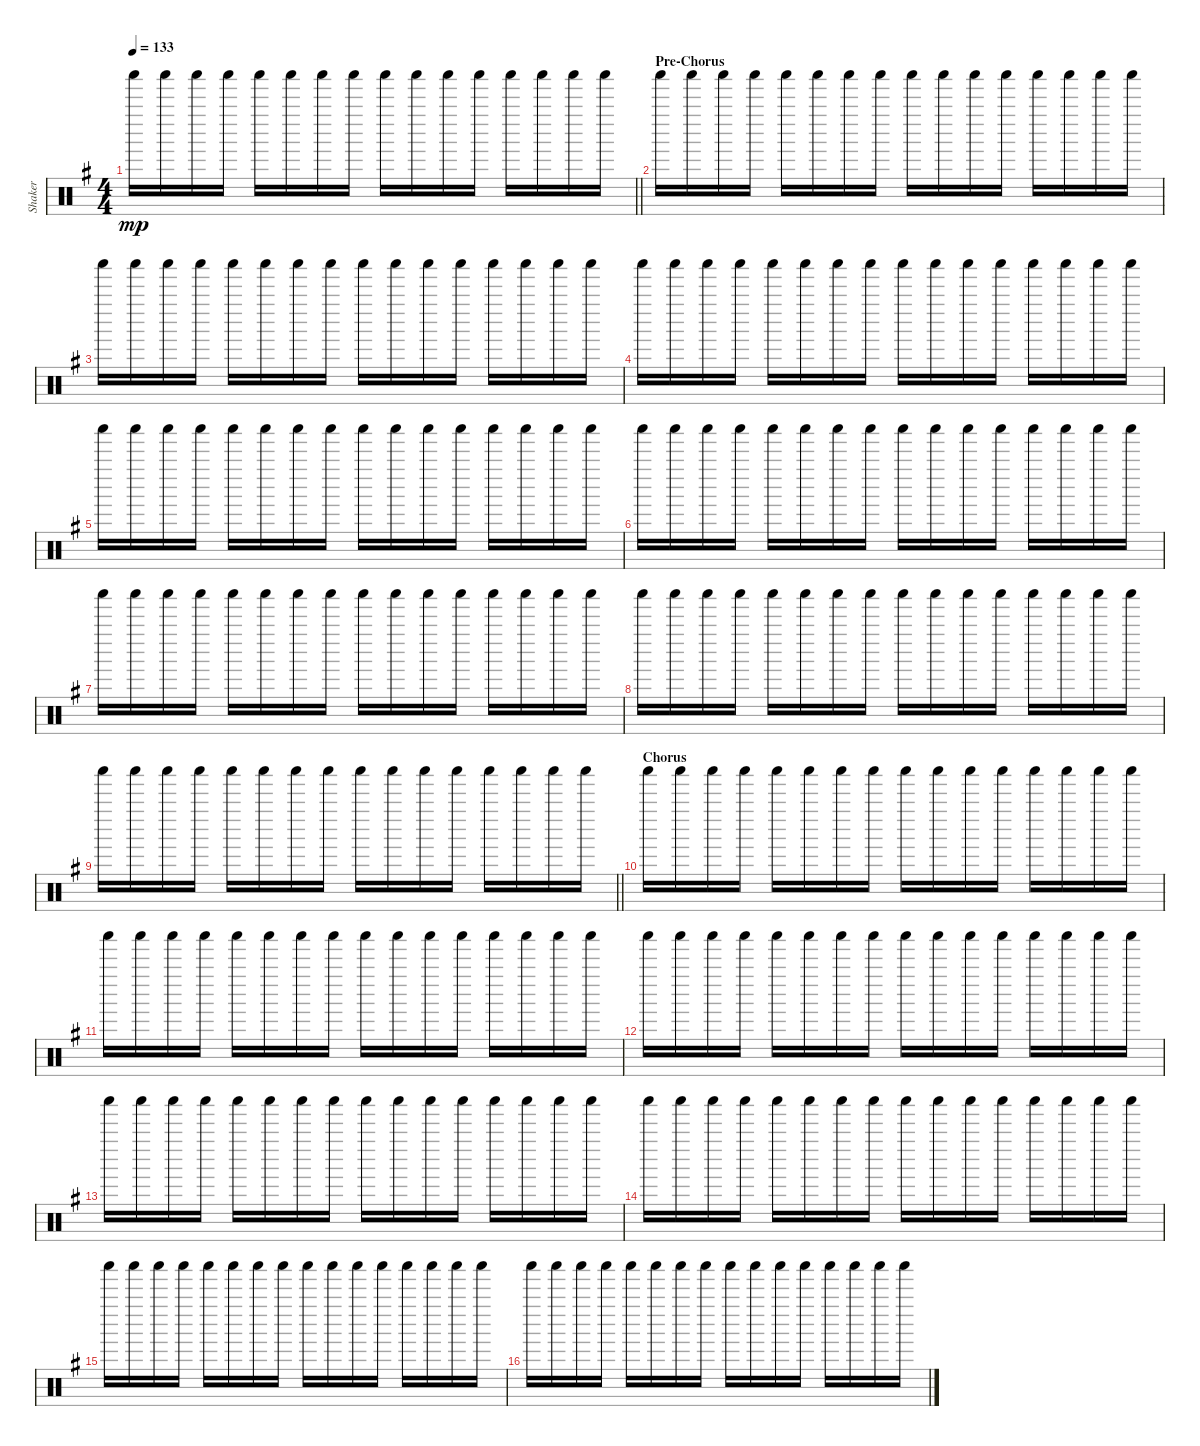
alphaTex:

\track ("Shaker" "Shaker") {instrument percussion}
\staff {score}
\articulation defaults
\ts (4 4)
\tempo 133
\clef neutral
\barLineRight lightlight
\ks g "Shaker (hit)".16{dy mp} "Shaker (hit)".16 "Shaker (hit)".16 "Shaker (hit)".16 "Shaker (hit)".16 "Shaker (hit)".16 "Shaker (hit)".16 "Shaker (hit)".16 "Shaker (hit)".16 "Shaker (hit)".16 "Shaker (hit)".16 "Shaker (hit)".16 "Shaker (hit)".16 "Shaker (hit)".16 "Shaker (hit)".16 "Shaker (hit)".16
|
\section ("" "Pre-Chorus")
"Shaker (hit)".16 "Shaker (hit)".16 "Shaker (hit)".16 "Shaker (hit)".16 "Shaker (hit)".16 "Shaker (hit)".16 "Shaker (hit)".16 "Shaker (hit)".16 "Shaker (hit)".16 "Shaker (hit)".16 "Shaker (hit)".16 "Shaker (hit)".16 "Shaker (hit)".16 "Shaker (hit)".16 "Shaker (hit)".16 "Shaker (hit)".16 |
"Shaker (hit)".16 "Shaker (hit)".16 "Shaker (hit)".16 "Shaker (hit)".16 "Shaker (hit)".16 "Shaker (hit)".16 "Shaker (hit)".16 "Shaker (hit)".16 "Shaker (hit)".16 "Shaker (hit)".16 "Shaker (hit)".16 "Shaker (hit)".16 "Shaker (hit)".16 "Shaker (hit)".16 "Shaker (hit)".16 "Shaker (hit)".16 |
"Shaker (hit)".16 "Shaker (hit)".16 "Shaker (hit)".16 "Shaker (hit)".16 "Shaker (hit)".16 "Shaker (hit)".16 "Shaker (hit)".16 "Shaker (hit)".16 "Shaker (hit)".16 "Shaker (hit)".16 "Shaker (hit)".16 "Shaker (hit)".16 "Shaker (hit)".16 "Shaker (hit)".16 "Shaker (hit)".16 "Shaker (hit)".16 |
"Shaker (hit)".16 "Shaker (hit)".16 "Shaker (hit)".16 "Shaker (hit)".16 "Shaker (hit)".16 "Shaker (hit)".16 "Shaker (hit)".16 "Shaker (hit)".16 "Shaker (hit)".16 "Shaker (hit)".16 "Shaker (hit)".16 "Shaker (hit)".16 "Shaker (hit)".16 "Shaker (hit)".16 "Shaker (hit)".16 "Shaker (hit)".16 |
"Shaker (hit)".16 "Shaker (hit)".16 "Shaker (hit)".16 "Shaker (hit)".16 "Shaker (hit)".16 "Shaker (hit)".16 "Shaker (hit)".16 "Shaker (hit)".16 "Shaker (hit)".16 "Shaker (hit)".16 "Shaker (hit)".16 "Shaker (hit)".16 "Shaker (hit)".16 "Shaker (hit)".16 "Shaker (hit)".16 "Shaker (hit)".16 |
"Shaker (hit)".16 "Shaker (hit)".16 "Shaker (hit)".16 "Shaker (hit)".16 "Shaker (hit)".16 "Shaker (hit)".16 "Shaker (hit)".16 "Shaker (hit)".16 "Shaker (hit)".16 "Shaker (hit)".16 "Shaker (hit)".16 "Shaker (hit)".16 "Shaker (hit)".16 "Shaker (hit)".16 "Shaker (hit)".16 "Shaker (hit)".16 |
"Shaker (hit)".16 "Shaker (hit)".16 "Shaker (hit)".16 "Shaker (hit)".16 "Shaker (hit)".16 "Shaker (hit)".16 "Shaker (hit)".16 "Shaker (hit)".16 "Shaker (hit)".16 "Shaker (hit)".16 "Shaker (hit)".16 "Shaker (hit)".16 "Shaker (hit)".16 "Shaker (hit)".16 "Shaker (hit)".16 "Shaker (hit)".16 |
\barLineRight lightlight "Shaker (hit)".16 "Shaker (hit)".16 "Shaker (hit)".16 "Shaker (hit)".16 "Shaker (hit)".16 "Shaker (hit)".16 "Shaker (hit)".16 "Shaker (hit)".16 "Shaker (hit)".16 "Shaker (hit)".16 "Shaker (hit)".16 "Shaker (hit)".16 "Shaker (hit)".16 "Shaker (hit)".16 "Shaker (hit)".16 "Shaker (hit)".16
|
\section ("" "Chorus")
"Shaker (hit)".16 "Shaker (hit)".16 "Shaker (hit)".16 "Shaker (hit)".16 "Shaker (hit)".16 "Shaker (hit)".16 "Shaker (hit)".16 "Shaker (hit)".16 "Shaker (hit)".16 "Shaker (hit)".16 "Shaker (hit)".16 "Shaker (hit)".16 "Shaker (hit)".16 "Shaker (hit)".16 "Shaker (hit)".16 "Shaker (hit)".16 |
"Shaker (hit)".16 "Shaker (hit)".16 "Shaker (hit)".16 "Shaker (hit)".16 "Shaker (hit)".16 "Shaker (hit)".16 "Shaker (hit)".16 "Shaker (hit)".16 "Shaker (hit)".16 "Shaker (hit)".16 "Shaker (hit)".16 "Shaker (hit)".16 "Shaker (hit)".16 "Shaker (hit)".16 "Shaker (hit)".16 "Shaker (hit)".16 |
"Shaker (hit)".16 "Shaker (hit)".16 "Shaker (hit)".16 "Shaker (hit)".16 "Shaker (hit)".16 "Shaker (hit)".16 "Shaker (hit)".16 "Shaker (hit)".16 "Shaker (hit)".16 "Shaker (hit)".16 "Shaker (hit)".16 "Shaker (hit)".16 "Shaker (hit)".16 "Shaker (hit)".16 "Shaker (hit)".16 "Shaker (hit)".16 |
"Shaker (hit)".16 "Shaker (hit)".16 "Shaker (hit)".16 "Shaker (hit)".16 "Shaker (hit)".16 "Shaker (hit)".16 "Shaker (hit)".16 "Shaker (hit)".16 "Shaker (hit)".16 "Shaker (hit)".16 "Shaker (hit)".16 "Shaker (hit)".16 "Shaker (hit)".16 "Shaker (hit)".16 "Shaker (hit)".16 "Shaker (hit)".16 |
"Shaker (hit)".16 "Shaker (hit)".16 "Shaker (hit)".16 "Shaker (hit)".16 "Shaker (hit)".16 "Shaker (hit)".16 "Shaker (hit)".16 "Shaker (hit)".16 "Shaker (hit)".16 "Shaker (hit)".16 "Shaker (hit)".16 "Shaker (hit)".16 "Shaker (hit)".16 "Shaker (hit)".16 "Shaker (hit)".16 "Shaker (hit)".16 |
"Shaker (hit)".16 "Shaker (hit)".16 "Shaker (hit)".16 "Shaker (hit)".16 "Shaker (hit)".16 "Shaker (hit)".16 "Shaker (hit)".16 "Shaker (hit)".16 "Shaker (hit)".16 "Shaker (hit)".16 "Shaker (hit)".16 "Shaker (hit)".16 "Shaker (hit)".16 "Shaker (hit)".16 "Shaker (hit)".16 "Shaker (hit)".16 |
"Shaker (hit)".16 "Shaker (hit)".16 "Shaker (hit)".16 "Shaker (hit)".16 "Shaker (hit)".16 "Shaker (hit)".16 "Shaker (hit)".16 "Shaker (hit)".16 "Shaker (hit)".16 "Shaker (hit)".16 "Shaker (hit)".16 "Shaker (hit)".16 "Shaker (hit)".16 "Shaker (hit)".16 "Shaker (hit)".16 "Shaker (hit)".16
